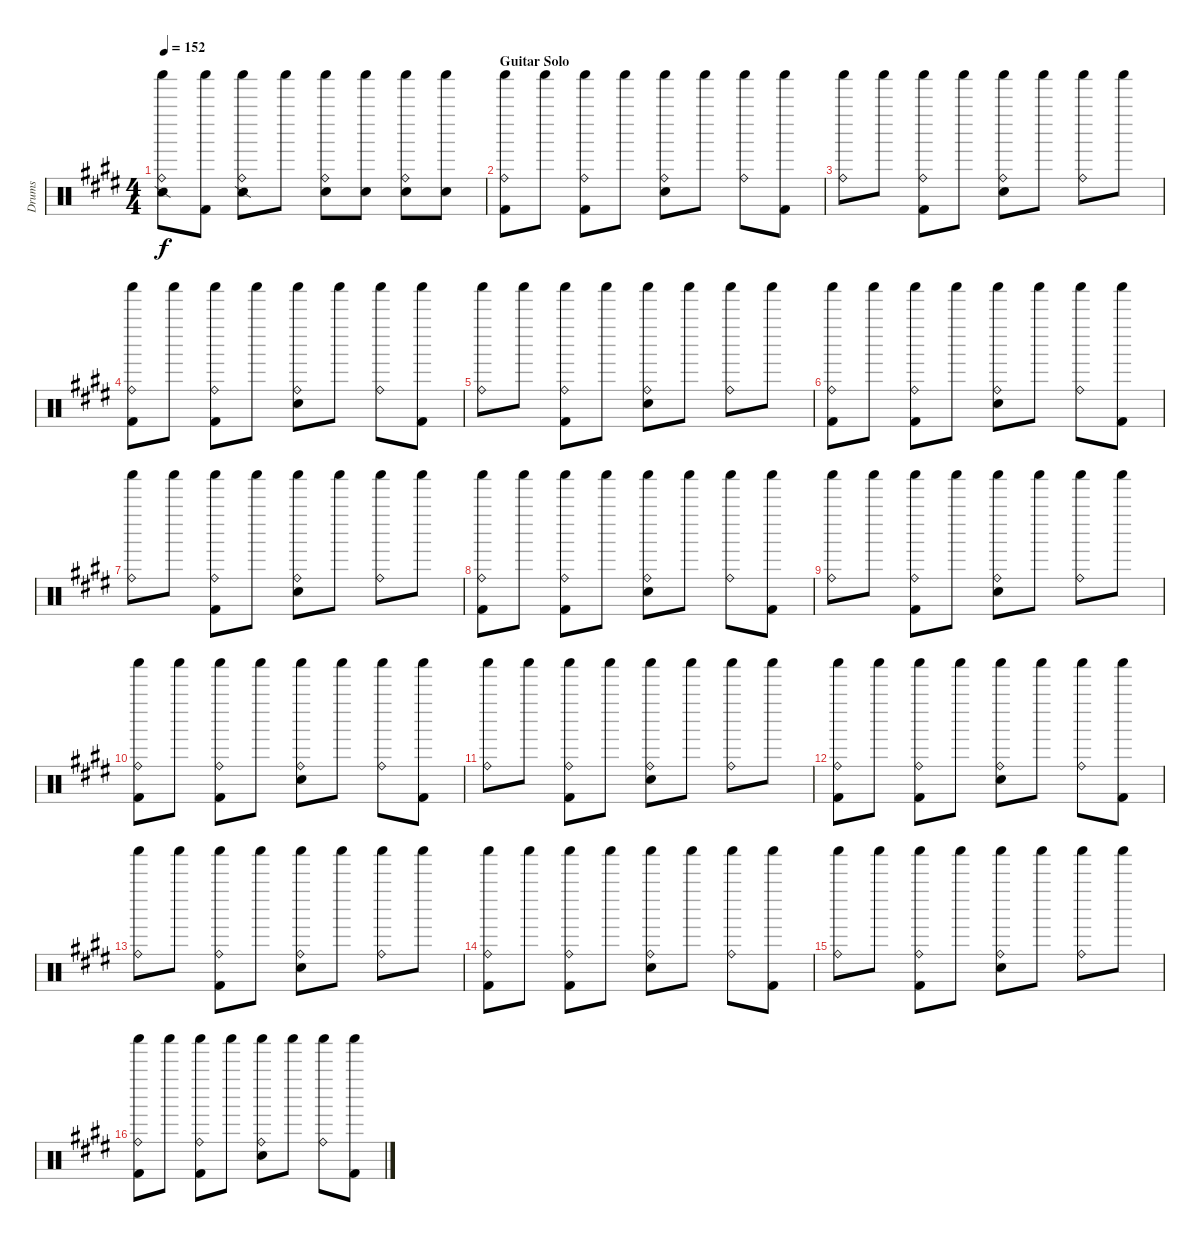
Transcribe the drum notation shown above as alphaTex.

\track ("Drums" "Drums") {instrument percussion}
\staff {score}
\articulation defaults
\ts (4 4)
\tempo 152
\clef neutral
\ks c#minor
("Snare (side stick) 2" "Ride (bell)" "Shaker (hit)").8{dy f} ("Shaker (hit)" "Kick (hit) 2").8 ("Snare (side stick) 2" "Ride (bell)" "Shaker (hit)").8 "Shaker (hit)".8 ("Ride (bell)" "Snare (hit) 2" "Shaker (hit)").8 ("Snare (hit) 2" "Shaker (hit)").8 ("Snare (hit) 2" "Ride (bell)" "Shaker (hit)").8 ("Snare (hit) 2" "Shaker (hit)").8 |
\section ("" "Guitar Solo")
("Ride (bell)" "Kick (hit) 2" "Shaker (hit)").8 "Shaker (hit)".8 ("Ride (bell)" "Kick (hit) 2" "Shaker (hit)").8 "Shaker (hit)".8 ("Ride (bell)" "Snare (hit) 2" "Shaker (hit)").8 "Shaker (hit)".8 ("Ride (bell)" "Shaker (hit)").8 ("Kick (hit) 2" "Shaker (hit)").8 |
("Ride (bell)" "Shaker (hit)").8 "Shaker (hit)".8 ("Ride (bell)" "Kick (hit) 2" "Shaker (hit)").8 "Shaker (hit)".8 ("Ride (bell)" "Snare (hit) 2" "Shaker (hit)").8 "Shaker (hit)".8 ("Ride (bell)" "Shaker (hit)").8 "Shaker (hit)".8 |
("Ride (bell)" "Kick (hit) 2" "Shaker (hit)").8 "Shaker (hit)".8 ("Ride (bell)" "Kick (hit) 2" "Shaker (hit)").8 "Shaker (hit)".8 ("Ride (bell)" "Snare (hit) 2" "Shaker (hit)").8 "Shaker (hit)".8 ("Ride (bell)" "Shaker (hit)").8 ("Kick (hit) 2" "Shaker (hit)").8 |
("Ride (bell)" "Shaker (hit)").8 "Shaker (hit)".8 ("Ride (bell)" "Kick (hit) 2" "Shaker (hit)").8 "Shaker (hit)".8 ("Ride (bell)" "Snare (hit) 2" "Shaker (hit)").8 "Shaker (hit)".8 ("Ride (bell)" "Shaker (hit)").8 "Shaker (hit)".8 |
("Ride (bell)" "Kick (hit) 2" "Shaker (hit)").8 "Shaker (hit)".8 ("Ride (bell)" "Kick (hit) 2" "Shaker (hit)").8 "Shaker (hit)".8 ("Ride (bell)" "Snare (hit) 2" "Shaker (hit)").8 "Shaker (hit)".8 ("Ride (bell)" "Shaker (hit)").8 ("Kick (hit) 2" "Shaker (hit)").8 |
("Ride (bell)" "Shaker (hit)").8 "Shaker (hit)".8 ("Ride (bell)" "Kick (hit) 2" "Shaker (hit)").8 "Shaker (hit)".8 ("Ride (bell)" "Snare (hit) 2" "Shaker (hit)").8 "Shaker (hit)".8 ("Ride (bell)" "Shaker (hit)").8 "Shaker (hit)".8 |
("Ride (bell)" "Kick (hit) 2" "Shaker (hit)").8 "Shaker (hit)".8 ("Ride (bell)" "Kick (hit) 2" "Shaker (hit)").8 "Shaker (hit)".8 ("Ride (bell)" "Snare (hit) 2" "Shaker (hit)").8 "Shaker (hit)".8 ("Ride (bell)" "Shaker (hit)").8 ("Kick (hit) 2" "Shaker (hit)").8 |
("Ride (bell)" "Shaker (hit)").8 "Shaker (hit)".8 ("Ride (bell)" "Kick (hit) 2" "Shaker (hit)").8 "Shaker (hit)".8 ("Ride (bell)" "Snare (hit) 2" "Shaker (hit)").8 "Shaker (hit)".8 ("Ride (bell)" "Shaker (hit)").8 "Shaker (hit)".8 |
("Ride (bell)" "Kick (hit) 2" "Shaker (hit)").8 "Shaker (hit)".8 ("Ride (bell)" "Kick (hit) 2" "Shaker (hit)").8 "Shaker (hit)".8 ("Ride (bell)" "Snare (hit) 2" "Shaker (hit)").8 "Shaker (hit)".8 ("Ride (bell)" "Shaker (hit)").8 ("Kick (hit) 2" "Shaker (hit)").8 |
("Ride (bell)" "Shaker (hit)").8 "Shaker (hit)".8 ("Ride (bell)" "Kick (hit) 2" "Shaker (hit)").8 "Shaker (hit)".8 ("Ride (bell)" "Snare (hit) 2" "Shaker (hit)").8 "Shaker (hit)".8 ("Ride (bell)" "Shaker (hit)").8 "Shaker (hit)".8 |
("Ride (bell)" "Kick (hit) 2" "Shaker (hit)").8 "Shaker (hit)".8 ("Ride (bell)" "Kick (hit) 2" "Shaker (hit)").8 "Shaker (hit)".8 ("Ride (bell)" "Snare (hit) 2" "Shaker (hit)").8 "Shaker (hit)".8 ("Ride (bell)" "Shaker (hit)").8 ("Kick (hit) 2" "Shaker (hit)").8 |
("Ride (bell)" "Shaker (hit)").8 "Shaker (hit)".8 ("Ride (bell)" "Kick (hit) 2" "Shaker (hit)").8 "Shaker (hit)".8 ("Ride (bell)" "Snare (hit) 2" "Shaker (hit)").8 "Shaker (hit)".8 ("Ride (bell)" "Shaker (hit)").8 "Shaker (hit)".8 |
("Ride (bell)" "Kick (hit) 2" "Shaker (hit)").8 "Shaker (hit)".8 ("Ride (bell)" "Kick (hit) 2" "Shaker (hit)").8 "Shaker (hit)".8 ("Ride (bell)" "Snare (hit) 2" "Shaker (hit)").8 "Shaker (hit)".8 ("Ride (bell)" "Shaker (hit)").8 ("Kick (hit) 2" "Shaker (hit)").8 |
("Ride (bell)" "Shaker (hit)").8 "Shaker (hit)".8 ("Ride (bell)" "Kick (hit) 2" "Shaker (hit)").8 "Shaker (hit)".8 ("Ride (bell)" "Snare (hit) 2" "Shaker (hit)").8 "Shaker (hit)".8 ("Ride (bell)" "Shaker (hit)").8 "Shaker (hit)".8 |
("Ride (bell)" "Kick (hit) 2" "Shaker (hit)").8 "Shaker (hit)".8 ("Ride (bell)" "Kick (hit) 2" "Shaker (hit)").8 "Shaker (hit)".8 ("Ride (bell)" "Snare (hit) 2" "Shaker (hit)").8 "Shaker (hit)".8 ("Ride (bell)" "Shaker (hit)").8 ("Kick (hit) 2" "Shaker (hit)").8
